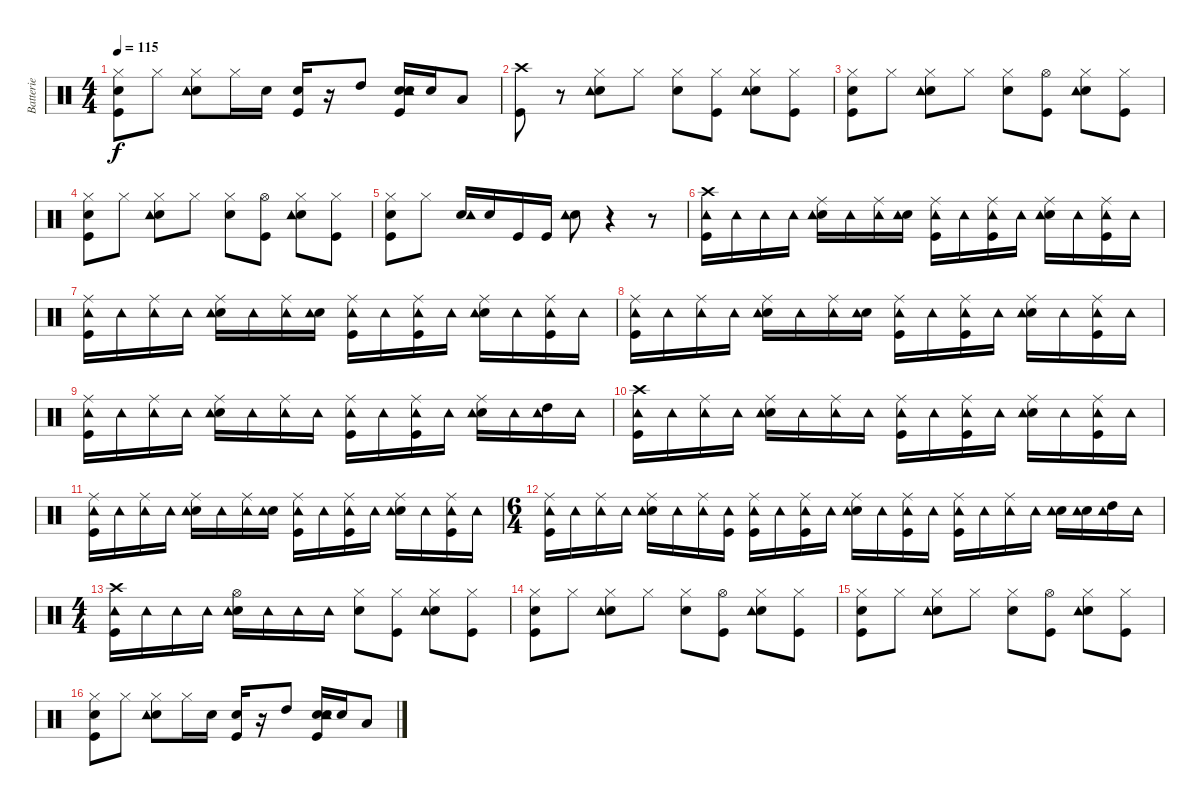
\track ("Batterie" "Batterie") {instrument percussion}
\staff {score}
\articulation defaults
\ts (4 4)
\tempo 115
\clef neutral
\ks c
("Hi-Hat (closed)" "Kick (hit)" "Electric Snare (hit)").8{dy f} "Hi-Hat (closed)".8 ("Electric Snare (hit)" "Hi-Hat (closed)" "Tambourine (hit)").8 "Hi-Hat (closed)".16 "Electric Snare (hit)".16 ("Electric Snare (hit)" "Kick (hit)").16 r.16 "High Tom (hit)".8 ("Snare (hit) 2" "Kick (hit)" "Electric Snare (hit)" "Tambourine (hit)").16 "Electric Snare (hit)".16 "Low Tom (hit)".8 |
("Kick (hit)" "Crash high (hit)").8 r.8 ("Electric Snare (hit)" "Hi-Hat (closed)" "Tambourine (hit)").8 "Hi-Hat (closed)".8 ("Hi-Hat (closed)" "Electric Snare (hit)").8 ("Kick (hit)" "Hi-Hat (closed)").8 ("Hi-Hat (closed)" "Electric Snare (hit)" "Tambourine (hit)").8 ("Kick (hit)" "Hi-Hat (closed)").8 |
("Electric Snare (hit)" "Hi-Hat (closed)" "Kick (hit)").8 "Hi-Hat (closed)".8 ("Electric Snare (hit)" "Hi-Hat (closed)" "Tambourine (hit)").8 "Hi-Hat (closed)".8 ("Electric Snare (hit)" "Hi-Hat (closed)").8 ("Hi-Hat (open)" "Kick (hit)").8 ("Hi-Hat (closed)" "Electric Snare (hit)" "Tambourine (hit)").8 ("Kick (hit)" "Hi-Hat (closed)").8 |
("Electric Snare (hit)" "Hi-Hat (closed)" "Kick (hit)").8 "Hi-Hat (closed)".8 ("Electric Snare (hit)" "Hi-Hat (closed)" "Tambourine (hit)").8 "Hi-Hat (closed)".8 ("Hi-Hat (closed)" "Electric Snare (hit)").8 ("Kick (hit)" "Hi-Hat (open)").8 ("Electric Snare (hit)" "Hi-Hat (closed)" "Tambourine (hit)").8 ("Kick (hit)" "Hi-Hat (closed)").8 |
("Kick (hit)" "Electric Snare (hit)" "Hi-Hat (closed)").8 "Hi-Hat (closed)".8 ("Electric Snare (hit)" "Tambourine (hit)").16 "Electric Snare (hit)".16 "Kick (hit)".16 "Kick (hit)".16 ("Electric Snare (hit)" "Tambourine (hit)").8 r.4 r.8 |
("Crash high (hit)" "Kick (hit)" "Tambourine (hit)").16 "Tambourine (hit)".16 "Tambourine (hit)".16 "Tambourine (hit)".16 ("Electric Snare (hit)" "Ride (middle)" "Tambourine (hit)").16 "Tambourine (hit)".16 ("Ride (middle)" "Tambourine (hit)").16 ("Electric Snare (hit)" "Tambourine (hit)").16 ("Ride (middle)" "Kick (hit)" "Tambourine (hit)").16 "Tambourine (hit)".16 ("Ride (middle)" "Kick (hit)" "Tambourine (hit)").16 "Tambourine (hit)".16 ("Ride (middle)" "Electric Snare (hit)" "Tambourine (hit)").16 "Tambourine (hit)".16 ("Ride (middle)" "Kick (hit)" "Tambourine (hit)").16 "Tambourine (hit)".16 |
("Ride (middle)" "Kick (hit)" "Tambourine (hit)").16 "Tambourine (hit)".16 ("Ride (middle)" "Tambourine (hit)").16 "Tambourine (hit)".16 ("Electric Snare (hit)" "Ride (middle)" "Tambourine (hit)").16 "Tambourine (hit)".16 ("Ride (middle)" "Tambourine (hit)").16 ("Electric Snare (hit)" "Tambourine (hit)").16 ("Ride (middle)" "Kick (hit)" "Tambourine (hit)").16 "Tambourine (hit)".16 ("Ride (middle)" "Kick (hit)" "Tambourine (hit)").16 "Tambourine (hit)".16 ("Electric Snare (hit)" "Ride (middle)" "Tambourine (hit)").16 "Tambourine (hit)".16 ("Kick (hit)" "Ride (middle)" "Tambourine (hit)").16 "Tambourine (hit)".16 |
("Kick (hit)" "Ride (middle)" "Tambourine (hit)").16 "Tambourine (hit)".16 ("Ride (middle)" "Tambourine (hit)").16 "Tambourine (hit)".16 ("Electric Snare (hit)" "Ride (middle)" "Tambourine (hit)").16 "Tambourine (hit)".16 ("Ride (middle)" "Tambourine (hit)").16 ("Electric Snare (hit)" "Tambourine (hit)").16 ("Ride (middle)" "Kick (hit)" "Tambourine (hit)").16 "Tambourine (hit)".16 ("Ride (middle)" "Kick (hit)" "Tambourine (hit)").16 "Tambourine (hit)".16 ("Electric Snare (hit)" "Ride (middle)" "Tambourine (hit)").16 "Tambourine (hit)".16 ("Ride (middle)" "Kick (hit)" "Tambourine (hit)").16 "Tambourine (hit)".16 |
("Kick (hit)" "Ride (middle)" "Tambourine (hit)").16 "Tambourine (hit)".16 ("Ride (middle)" "Tambourine (hit)").16 "Tambourine (hit)".16 ("Ride (middle)" "Electric Snare (hit)" "Tambourine (hit)").16 "Tambourine (hit)".16 ("Ride (middle)" "Tambourine (hit)").16 "Tambourine (hit)".16 ("Ride (middle)" "Kick (hit)" "Tambourine (hit)").16 "Tambourine (hit)".16 ("Kick (hit)" "Ride (middle)" "Tambourine (hit)").16 "Tambourine (hit)".16 ("Ride (middle)" "Electric Snare (hit)" "Tambourine (hit)").16 "Tambourine (hit)".16 ("High Tom (hit)" "Tambourine (hit)").16 "Tambourine (hit)".16 |
("Crash high (hit)" "Kick (hit)" "Tambourine (hit)").16 "Tambourine (hit)".16 ("Ride (middle)" "Tambourine (hit)").16 "Tambourine (hit)".16 ("Electric Snare (hit)" "Ride (middle)" "Tambourine (hit)").16 "Tambourine (hit)".16 ("Ride (middle)" "Tambourine (hit)").16 "Tambourine (hit)".16 ("Ride (middle)" "Kick (hit)" "Tambourine (hit)").16 "Tambourine (hit)".16 ("Kick (hit)" "Ride (middle)" "Tambourine (hit)").16 "Tambourine (hit)".16 ("Ride (middle)" "Electric Snare (hit)" "Tambourine (hit)").16 "Tambourine (hit)".16 ("Kick (hit)" "Ride (middle)" "Tambourine (hit)").16 "Tambourine (hit)".16 |
("Kick (hit)" "Ride (middle)" "Tambourine (hit)").16 "Tambourine (hit)".16 ("Ride (middle)" "Tambourine (hit)").16 "Tambourine (hit)".16 ("Electric Snare (hit)" "Ride (middle)" "Tambourine (hit)").16 "Tambourine (hit)".16 ("Ride (middle)" "Tambourine (hit)").16 ("Electric Snare (hit)" "Tambourine (hit)").16 ("Kick (hit)" "Ride (middle)" "Tambourine (hit)").16 "Tambourine (hit)".16 ("Ride (middle)" "Kick (hit)" "Tambourine (hit)").16 "Tambourine (hit)".16 ("Electric Snare (hit)" "Ride (middle)" "Tambourine (hit)").16 "Tambourine (hit)".16 ("Kick (hit)" "Ride (middle)" "Tambourine (hit)").16 "Tambourine (hit)".16 |
\ts (6 4)
("Kick (hit)" "Ride (middle)" "Tambourine (hit)").16 "Tambourine (hit)".16 ("Ride (middle)" "Tambourine (hit)").16 "Tambourine (hit)".16 ("Ride (middle)" "Electric Snare (hit)" "Tambourine (hit)").16 "Tambourine (hit)".16 ("Ride (middle)" "Tambourine (hit)").16 ("Kick (hit)" "Tambourine (hit)").16 ("Ride (middle)" "Kick (hit)" "Tambourine (hit)").16 "Tambourine (hit)".16 ("Ride (middle)" "Kick (hit)" "Tambourine (hit)").16 "Tambourine (hit)".16 ("Electric Snare (hit)" "Ride (middle)" "Tambourine (hit)").16 "Tambourine (hit)".16 ("Kick (hit)" "Ride (middle)" "Tambourine (hit)").16 "Tambourine (hit)".16 ("Ride (middle)" "Kick (hit)" "Tambourine (hit)").16 "Tambourine (hit)".16 ("Ride (middle)" "Tambourine (hit)").16 "Tambourine (hit)".16 ("Electric Snare (hit)" "Tambourine (hit)").16 ("Electric Snare (hit)" "Tambourine (hit)").16 ("High Tom (hit)" "Tambourine (hit)").16 "Tambourine (hit)".16 |
\ts (4 4)
("Kick (hit)" "Crash high (hit)" "Tambourine (hit)").16 "Tambourine (hit)".16 "Tambourine (hit)".16 "Tambourine (hit)".16 ("Electric Snare (hit)" "Hi-Hat (open)" "Tambourine (hit)").16 "Tambourine (hit)".16 "Tambourine (hit)".16 "Tambourine (hit)".16 ("Hi-Hat (closed)" "Electric Snare (hit)").8 ("Hi-Hat (closed)" "Kick (hit)").8 ("Hi-Hat (closed)" "Electric Snare (hit)" "Tambourine (hit)").8 ("Kick (hit)" "Hi-Hat (closed)").8 |
("Kick (hit)" "Electric Snare (hit)" "Hi-Hat (closed)").8 "Hi-Hat (closed)".8 ("Hi-Hat (closed)" "Electric Snare (hit)" "Tambourine (hit)").8 "Hi-Hat (closed)".8 ("Hi-Hat (closed)" "Electric Snare (hit)").8 ("Hi-Hat (open)" "Kick (hit)").8 ("Hi-Hat (closed)" "Electric Snare (hit)" "Tambourine (hit)").8 ("Kick (hit)" "Hi-Hat (closed)").8 |
("Hi-Hat (closed)" "Kick (hit)" "Electric Snare (hit)").8 "Hi-Hat (closed)".8 ("Hi-Hat (closed)" "Electric Snare (hit)" "Tambourine (hit)").8 "Hi-Hat (closed)".8 ("Electric Snare (hit)" "Hi-Hat (closed)").8 ("Kick (hit)" "Hi-Hat (open)").8 ("Electric Snare (hit)" "Hi-Hat (closed)" "Tambourine (hit)").8 ("Kick (hit)" "Hi-Hat (closed)").8 |
("Kick (hit)" "Hi-Hat (closed)" "Electric Snare (hit)").8 "Hi-Hat (closed)".8 ("Electric Snare (hit)" "Hi-Hat (closed)" "Tambourine (hit)").8 "Hi-Hat (closed)".16 "Electric Snare (hit)".16 ("Kick (hit)" "Electric Snare (hit)").16 r.16 "High Tom (hit)".8 ("Electric Snare (hit)" "Kick (hit)" "Snare (hit) 2" "Tambourine (hit)").16 "Electric Snare (hit)".16 "Low Tom (hit)".8
